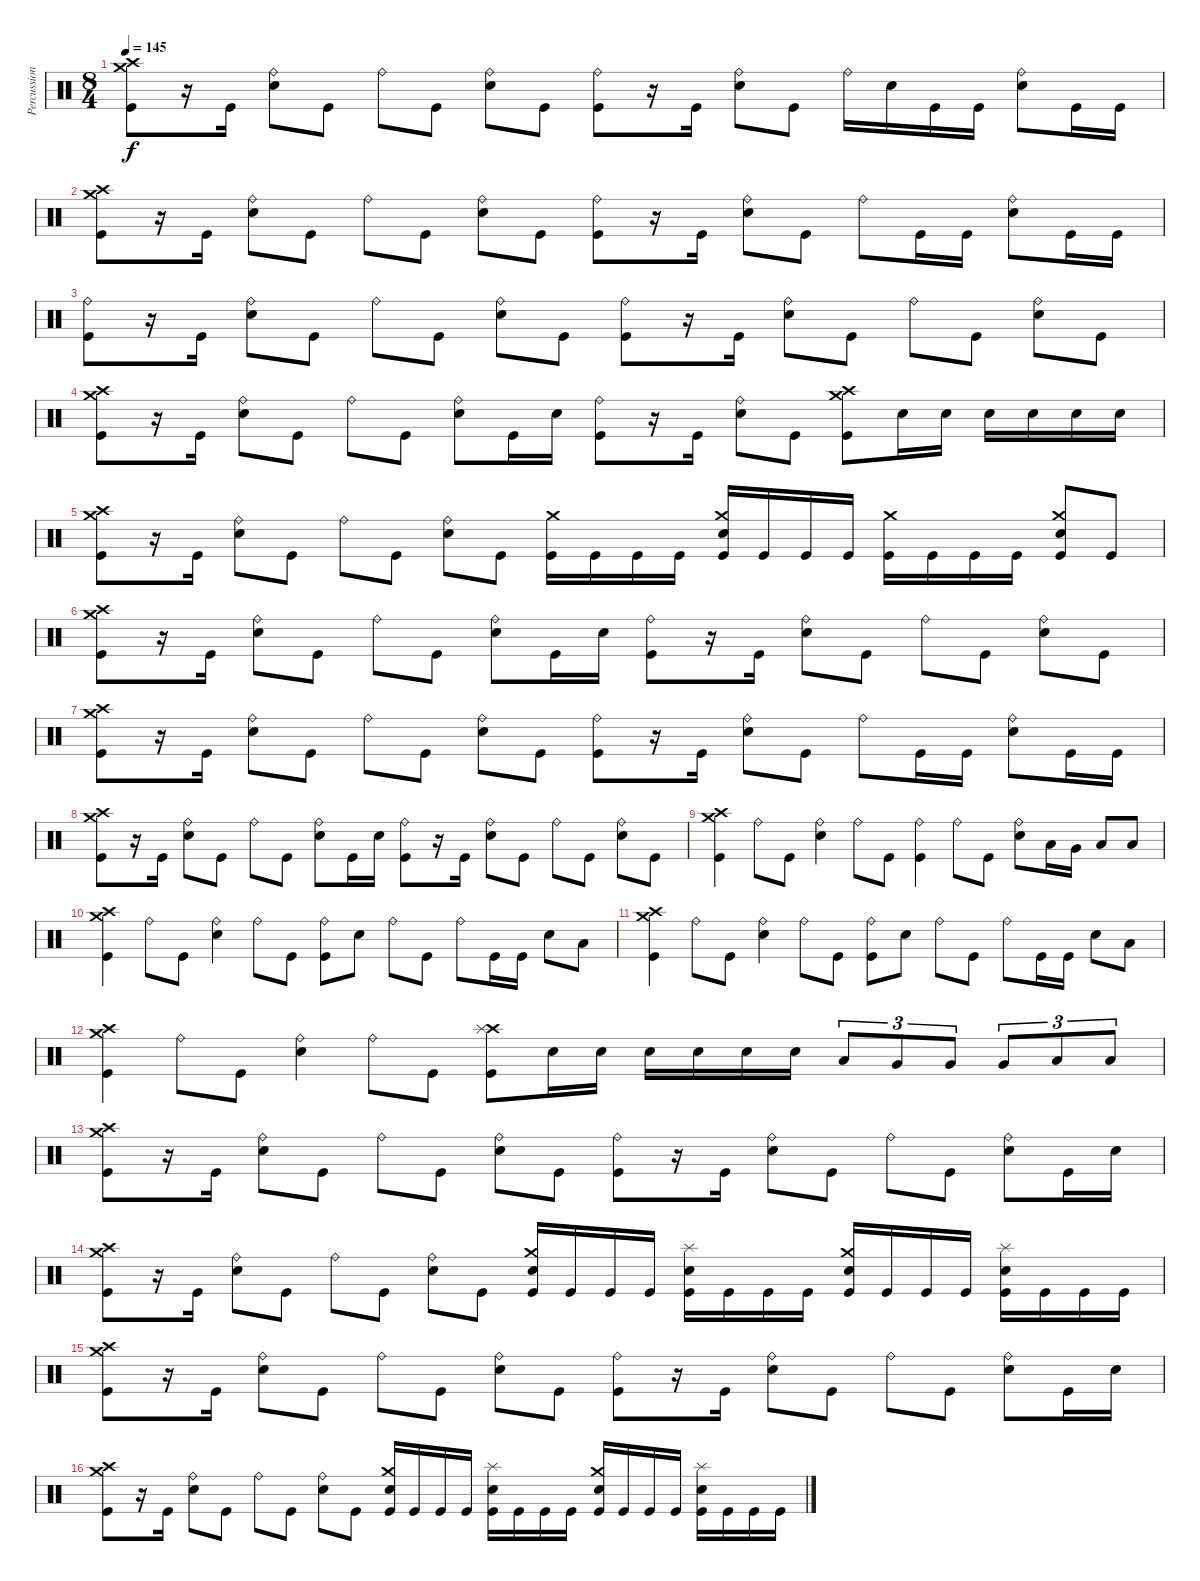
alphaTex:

\track ("Percussion" "Percussion") {instrument percussion}
\staff {score}
\articulation defaults
\ts (8 4)
\tempo 145
\clef neutral
\ks c
("Kick (hit)" "Crash high (hit)" "Crash medium (hit)").8{dy f} r.16 "Kick (hit)".16 ("Electric Snare (hit)" "Ride (bell)").8 "Kick (hit)".8 "Ride (bell)".8 "Kick (hit)".8 ("Electric Snare (hit)" "Ride (bell)").8 "Kick (hit)".8 ("Kick (hit)" "Ride (bell)").8 r.16 "Kick (hit)".16 ("Electric Snare (hit)" "Ride (bell)").8 "Kick (hit)".8 "Ride (bell)".16 "Electric Snare (hit)".16 "Kick (hit)".16 "Kick (hit)".16 ("Electric Snare (hit)" "Ride (bell)").8 "Kick (hit)".16 "Kick (hit)".16 |
("Kick (hit)" "Crash high (hit)" "Crash medium (hit)").8 r.16 "Kick (hit)".16 ("Electric Snare (hit)" "Ride (bell)").8 "Kick (hit)".8 "Ride (bell)".8 "Kick (hit)".8 ("Electric Snare (hit)" "Ride (bell)").8 "Kick (hit)".8 ("Kick (hit)" "Ride (bell)").8 r.16 "Kick (hit)".16 ("Electric Snare (hit)" "Ride (bell)").8 "Kick (hit)".8 "Ride (bell)".8 "Kick (hit)".16 "Kick (hit)".16 ("Electric Snare (hit)" "Ride (bell)").8 "Kick (hit)".16 "Kick (hit)".16 |
("Kick (hit)" "Ride (bell)").8 r.16 "Kick (hit)".16 ("Electric Snare (hit)" "Ride (bell)").8 "Kick (hit)".8 "Ride (bell)".8 "Kick (hit)".8 ("Electric Snare (hit)" "Ride (bell)").8 "Kick (hit)".8 ("Kick (hit)" "Ride (bell)").8 r.16 "Kick (hit)".16 ("Electric Snare (hit)" "Ride (bell)").8 "Kick (hit)".8 "Ride (bell)".8 "Kick (hit)".8 ("Electric Snare (hit)" "Ride (bell)").8 "Kick (hit)".8 |
("Kick (hit)" "Crash high (hit)" "Crash medium (hit)").8 r.16 "Kick (hit)".16 ("Electric Snare (hit)" "Ride (bell)").8 "Kick (hit)".8 "Ride (bell)".8 "Kick (hit)".8 ("Electric Snare (hit)" "Ride (bell)").8 "Kick (hit)".16 "Electric Snare (hit)".16 ("Kick (hit)" "Ride (bell)").8 r.16 "Kick (hit)".16 ("Electric Snare (hit)" "Ride (bell)").8 "Kick (hit)".8 ("Kick (hit)" "Crash medium (hit)" "Crash high (hit)").8 "Electric Snare (hit)".16 "Electric Snare (hit)".16 "Electric Snare (hit)".16 "Electric Snare (hit)".16 "Electric Snare (hit)".16 "Electric Snare (hit)".16 |
("Kick (hit)" "Crash high (hit)" "Crash medium (hit)").8 r.16 "Kick (hit)".16 ("Electric Snare (hit)" "Ride (bell)").8 "Kick (hit)".8 "Ride (bell)".8 "Kick (hit)".8 ("Electric Snare (hit)" "Ride (bell)").8 "Kick (hit)".8 ("Kick (hit)" "Crash medium (hit)").16 "Kick (hit)".16 "Kick (hit)".16 "Kick (hit)".16 ("Kick (hit)" "Crash medium (hit)" "Electric Snare (hit)").16 "Kick (hit)".16 "Kick (hit)".16 "Kick (hit)".16 ("Kick (hit)" "Crash medium (hit)").16 "Kick (hit)".16 "Kick (hit)".16 "Kick (hit)".16 ("Kick (hit)" "Crash medium (hit)" "Electric Snare (hit)").8 "Kick (hit)".8 |
("Kick (hit)" "Crash high (hit)" "Crash medium (hit)").8 r.16 "Kick (hit)".16 ("Electric Snare (hit)" "Ride (bell)").8 "Kick (hit)".8 "Ride (bell)".8 "Kick (hit)".8 ("Electric Snare (hit)" "Ride (bell)").8 "Kick (hit)".16 "Electric Snare (hit)".16 ("Kick (hit)" "Ride (bell)").8 r.16 "Kick (hit)".16 ("Electric Snare (hit)" "Ride (bell)").8 "Kick (hit)".8 "Ride (bell)".8 "Kick (hit)".8 ("Electric Snare (hit)" "Ride (bell)").8 "Kick (hit)".8 |
("Kick (hit)" "Crash high (hit)" "Crash medium (hit)").8 r.16 "Kick (hit)".16 ("Electric Snare (hit)" "Ride (bell)").8 "Kick (hit)".8 "Ride (bell)".8 "Kick (hit)".8 ("Electric Snare (hit)" "Ride (bell)").8 "Kick (hit)".8 ("Kick (hit)" "Ride (bell)").8 r.16 "Kick (hit)".16 ("Electric Snare (hit)" "Ride (bell)").8 "Kick (hit)".8 "Ride (bell)".8 "Kick (hit)".16 "Kick (hit)".16 ("Electric Snare (hit)" "Ride (bell)").8 "Kick (hit)".16 "Kick (hit)".16 |
("Kick (hit)" "Crash high (hit)" "Crash medium (hit)").8 r.16 "Kick (hit)".16 ("Electric Snare (hit)" "Ride (bell)").8 "Kick (hit)".8 "Ride (bell)".8 "Kick (hit)".8 ("Electric Snare (hit)" "Ride (bell)").8 "Kick (hit)".16 "Electric Snare (hit)".16 ("Kick (hit)" "Ride (bell)").8 r.16 "Kick (hit)".16 ("Electric Snare (hit)" "Ride (bell)").8 "Kick (hit)".8 "Ride (bell)".8 "Kick (hit)".8 ("Electric Snare (hit)" "Ride (bell)").8 "Kick (hit)".8 |
("Kick (hit)" "Crash high (hit)" "Crash medium (hit)").4 "Ride (bell)".8 "Kick (hit)".8 ("Electric Snare (hit)" "Ride (bell)").4 "Ride (bell)".8 "Kick (hit)".8 ("Kick (hit)" "Ride (bell)").4 "Ride (bell)".8 "Kick (hit)".8 ("Electric Snare (hit)" "Ride (bell)").8 "Low Tom (hit)".16 "Very Low Tom (hit)".16 "Low Floor Tom (hit)".8 "Low Floor Tom (hit)".8 |
("Kick (hit)" "Crash high (hit)" "Crash medium (hit)").4 "Ride (bell)".8 "Kick (hit)".8 ("Electric Snare (hit)" "Ride (bell)").4 "Ride (bell)".8 "Kick (hit)".8 ("Kick (hit)" "Ride (bell)").8 "Electric Snare (hit)".8 "Ride (bell)".8 "Kick (hit)".8 "Ride (bell)".8 "Kick (hit)".16 "Kick (hit)".16 "Electric Snare (hit)".8 "Low Floor Tom (hit)".8 |
("Kick (hit)" "Crash high (hit)" "Crash medium (hit)").4 "Ride (bell)".8 "Kick (hit)".8 ("Electric Snare (hit)" "Ride (bell)").4 "Ride (bell)".8 "Kick (hit)".8 ("Kick (hit)" "Ride (bell)").8 "Electric Snare (hit)".8 "Ride (bell)".8 "Kick (hit)".8 "Ride (bell)".8 "Kick (hit)".16 "Kick (hit)".16 "Electric Snare (hit)".8 "Low Floor Tom (hit)".8 |
("Kick (hit)" "Crash high (hit)" "Crash medium (hit)").4 "Ride (bell)".8 "Kick (hit)".8 ("Electric Snare (hit)" "Ride (bell)").4 "Ride (bell)".8 "Kick (hit)".8 ("Kick (hit)" "Crash high (hit)" "Splash (hit)").8 "Electric Snare (hit)".16 "Electric Snare (hit)".16 "Electric Snare (hit)".16 "Electric Snare (hit)".16 "Electric Snare (hit)".16 "Electric Snare (hit)".16 "Low Tom (hit)".8{tu (3 2)} "Very Low Tom (hit)".8{tu (3 2)} "Very Low Tom (hit)".8{tu (3 2)} "Very Low Tom (hit)".8{tu (3 2)} "Low Floor Tom (hit)".8{tu (3 2)} "Low Floor Tom (hit)".8{tu (3 2)} |
("Kick (hit)" "Crash high (hit)" "Crash medium (hit)").8 r.16 "Kick (hit)".16 ("Electric Snare (hit)" "Ride (bell)").8 "Kick (hit)".8 "Ride (bell)".8 "Kick (hit)".8 ("Electric Snare (hit)" "Ride (bell)").8 "Kick (hit)".8 ("Kick (hit)" "Ride (bell)").8 r.16 "Kick (hit)".16 ("Electric Snare (hit)" "Ride (bell)").8 "Kick (hit)".8 "Ride (bell)".8 "Kick (hit)".8 ("Electric Snare (hit)" "Ride (bell)").8 "Kick (hit)".16 "Electric Snare (hit)".16 |
("Kick (hit)" "Crash high (hit)" "Crash medium (hit)").8 r.16 "Kick (hit)".16 ("Electric Snare (hit)" "Ride (bell)").8 "Kick (hit)".8 "Ride (bell)".8 "Kick (hit)".8 ("Electric Snare (hit)" "Ride (bell)").8 "Kick (hit)".8 ("Kick (hit)" "Crash medium (hit)" "Electric Snare (hit)").16 "Kick (hit)".16 "Kick (hit)".16 "Kick (hit)".16 ("Kick (hit)" "Splash (hit)" "Electric Snare (hit)").16 "Kick (hit)".16 "Kick (hit)".16 "Kick (hit)".16 ("Kick (hit)" "Crash medium (hit)" "Electric Snare (hit)").16 "Kick (hit)".16 "Kick (hit)".16 "Kick (hit)".16 ("Kick (hit)" "Splash (hit)" "Electric Snare (hit)").16 "Kick (hit)".16 "Kick (hit)".16 "Kick (hit)".16 |
("Kick (hit)" "Crash high (hit)" "Crash medium (hit)").8 r.16 "Kick (hit)".16 ("Electric Snare (hit)" "Ride (bell)").8 "Kick (hit)".8 "Ride (bell)".8 "Kick (hit)".8 ("Electric Snare (hit)" "Ride (bell)").8 "Kick (hit)".8 ("Kick (hit)" "Ride (bell)").8 r.16 "Kick (hit)".16 ("Electric Snare (hit)" "Ride (bell)").8 "Kick (hit)".8 "Ride (bell)".8 "Kick (hit)".8 ("Electric Snare (hit)" "Ride (bell)").8 "Kick (hit)".16 "Electric Snare (hit)".16 |
("Kick (hit)" "Crash high (hit)" "Crash medium (hit)").8 r.16 "Kick (hit)".16 ("Electric Snare (hit)" "Ride (bell)").8 "Kick (hit)".8 "Ride (bell)".8 "Kick (hit)".8 ("Electric Snare (hit)" "Ride (bell)").8 "Kick (hit)".8 ("Kick (hit)" "Crash medium (hit)" "Electric Snare (hit)").16 "Kick (hit)".16 "Kick (hit)".16 "Kick (hit)".16 ("Kick (hit)" "Splash (hit)" "Electric Snare (hit)").16 "Kick (hit)".16 "Kick (hit)".16 "Kick (hit)".16 ("Kick (hit)" "Crash medium (hit)" "Electric Snare (hit)").16 "Kick (hit)".16 "Kick (hit)".16 "Kick (hit)".16 ("Kick (hit)" "Splash (hit)" "Electric Snare (hit)").16 "Kick (hit)".16 "Kick (hit)".16 "Kick (hit)".16
